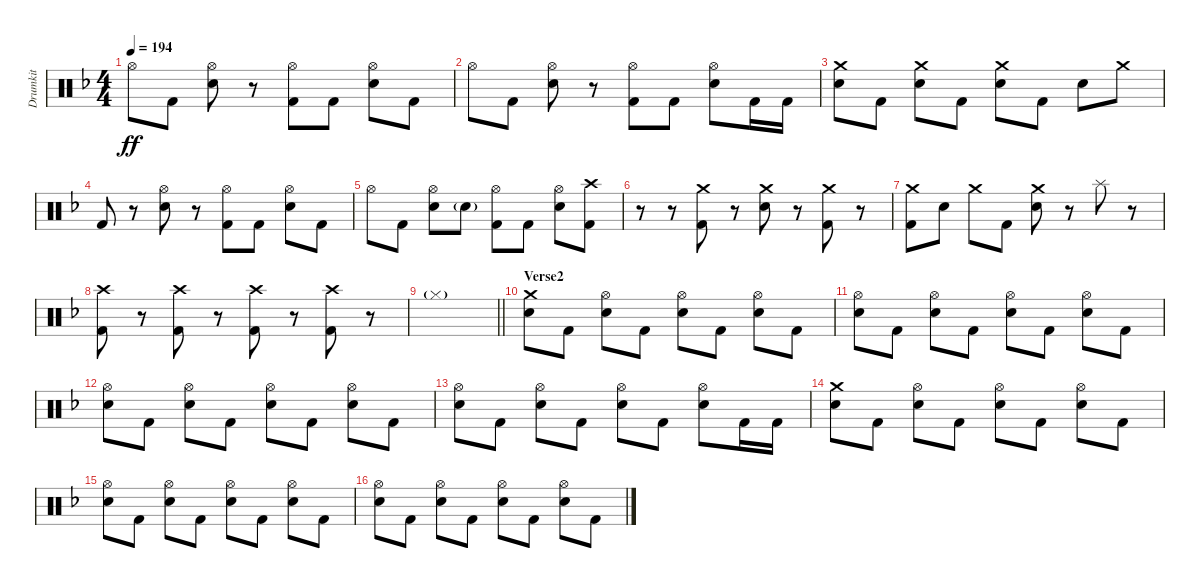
\track ("Drumkit" "Drumkit") {instrument percussion}
\staff {score}
\articulation defaults
\ts (4 4)
\tempo 194
\clef neutral
\ks f "Hi-Hat (open)".8{dy ff} "Kick (hit) 2".8
("Hi-Hat (open)" "Snare (hit) 2").8 r.8 ("Hi-Hat (open)" "Kick (hit) 2").8 "Kick (hit) 2".8 ("Hi-Hat (open)" "Snare (hit) 2").8 "Kick (hit) 2".8 |
"Hi-Hat (open)".8 "Kick (hit) 2".8 ("Hi-Hat (open)" "Snare (hit) 2").8 r.8 ("Hi-Hat (open)" "Kick (hit) 2").8 "Kick (hit) 2".8 ("Hi-Hat (open)" "Snare (hit) 2").8 "Kick (hit) 2".16 "Kick (hit) 2".16 |
("Crash medium (hit)" "Snare (hit) 2").8 "Kick (hit) 2".8 ("Crash medium (hit)" "Snare (hit) 2").8 "Kick (hit) 2".8 ("Crash medium (hit)" "Snare (hit) 2").8 "Kick (hit) 2".8 "Snare (hit) 2".8 "Crash medium (hit)".8 |
"Kick (hit) 2".8 r.8 ("Hi-Hat (open)" "Snare (hit) 2").8 r.8 ("Hi-Hat (open)" "Kick (hit) 2").8 "Kick (hit) 2".8 ("Hi-Hat (open)" "Snare (hit) 2").8 "Kick (hit) 2".8 |
"Hi-Hat (open)".8 "Kick (hit) 2".8 ("Hi-Hat (open)" "Snare (hit) 2").8 "Snare (hit) 2"{g}.8 ("Hi-Hat (open)" "Kick (hit) 2").8 "Kick (hit) 2".8 ("Hi-Hat (open)" "Snare (hit) 2").8 ("Crash high (hit)" "Kick (hit) 2").8 |
r.8 r.8 ("Crash medium (hit)" "Kick (hit) 2").8 r.8 ("Crash medium (hit)" "Snare (hit) 2").8 r.8 ("Crash medium (hit)" "Kick (hit) 2").8 r.8 |
("Crash medium (hit)" "Kick (hit) 2").8 "Snare (hit) 2".8 "Crash medium (hit)".8 "Kick (hit) 2".8 ("Crash medium (hit)" "Snare (hit) 2").8 r.8 "Splash (hit)".8 r.8 |
("Crash high (hit)" "Kick (hit) 2").8 r.8 ("Crash high (hit)" "Kick (hit) 2").8 r.8 ("Crash high (hit)" "Kick (hit) 2").8 r.8 ("Crash high (hit)" "Kick (hit) 2").8 r.8 |
\barLineRight lightlight "Hi-Hat (closed)"{g}.1
|
\section ("" "Verse2")
("Crash medium (hit)" "Snare (hit) 2").8 "Kick (hit) 2".8 ("Hi-Hat (open)" "Snare (hit) 2").8 "Kick (hit) 2".8 ("Hi-Hat (open)" "Snare (hit) 2").8 "Kick (hit) 2".8 ("Hi-Hat (open)" "Snare (hit) 2").8 "Kick (hit) 2".8 |
("Hi-Hat (open)" "Snare (hit) 2").8 "Kick (hit) 2".8 ("Hi-Hat (open)" "Snare (hit) 2").8 "Kick (hit) 2".8 ("Hi-Hat (open)" "Snare (hit) 2").8 "Kick (hit) 2".8 ("Hi-Hat (open)" "Snare (hit) 2").8 "Kick (hit) 2".8 |
("Hi-Hat (open)" "Snare (hit) 2").8 "Kick (hit) 2".8 ("Hi-Hat (open)" "Snare (hit) 2").8 "Kick (hit) 2".8 ("Hi-Hat (open)" "Snare (hit) 2").8 "Kick (hit) 2".8 ("Hi-Hat (open)" "Snare (hit) 2").8 "Kick (hit) 2".8 |
("Hi-Hat (open)" "Snare (hit) 2").8 "Kick (hit) 2".8 ("Hi-Hat (open)" "Snare (hit) 2").8 "Kick (hit) 2".8 ("Hi-Hat (open)" "Snare (hit) 2").8 "Kick (hit) 2".8 ("Hi-Hat (open)" "Snare (hit) 2").8 "Kick (hit) 2".16 "Kick (hit) 2".16 |
("Crash medium (hit)" "Snare (hit) 2").8 "Kick (hit) 2".8 ("Hi-Hat (open)" "Snare (hit) 2").8 "Kick (hit) 2".8 ("Hi-Hat (open)" "Snare (hit) 2").8 "Kick (hit) 2".8 ("Hi-Hat (open)" "Snare (hit) 2").8 "Kick (hit) 2".8 |
("Hi-Hat (open)" "Snare (hit) 2").8 "Kick (hit) 2".8 ("Hi-Hat (open)" "Snare (hit) 2").8 "Kick (hit) 2".8 ("Hi-Hat (open)" "Snare (hit) 2").8 "Kick (hit) 2".8 ("Hi-Hat (open)" "Snare (hit) 2").8 "Kick (hit) 2".8 |
("Hi-Hat (open)" "Snare (hit) 2").8 "Kick (hit) 2".8 ("Hi-Hat (open)" "Snare (hit) 2").8 "Kick (hit) 2".8 ("Hi-Hat (open)" "Snare (hit) 2").8 "Kick (hit) 2".8 ("Hi-Hat (open)" "Snare (hit) 2").8 "Kick (hit) 2".8
